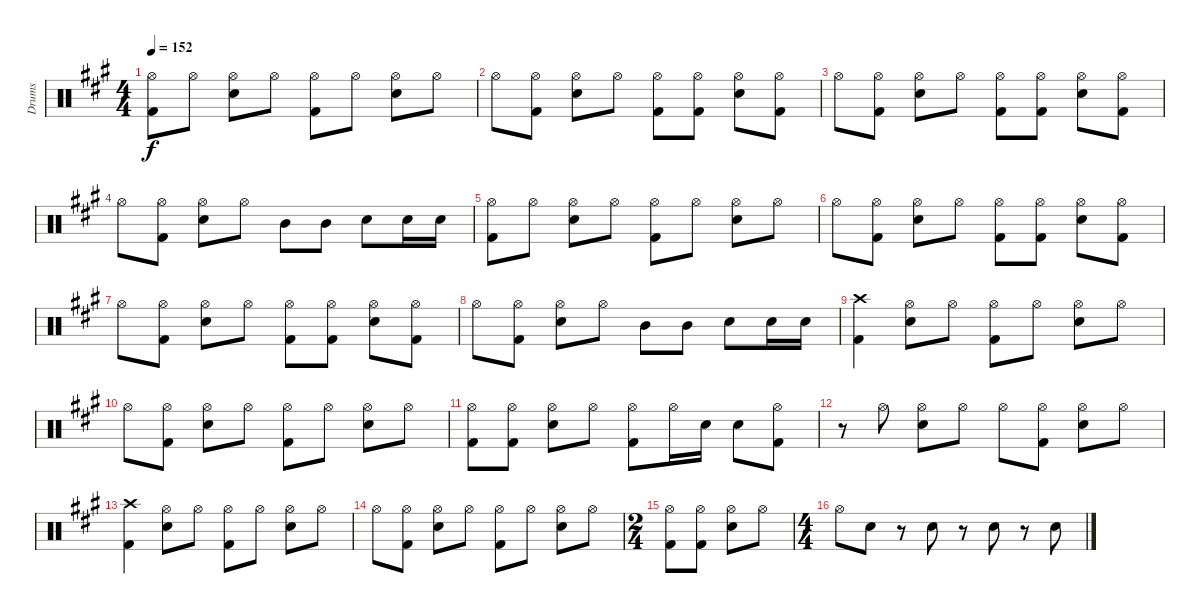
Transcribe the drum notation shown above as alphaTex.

\track ("Drums" "Drums") {instrument percussion}
\staff {score}
\articulation defaults
\ts (4 4)
\tempo 152
\clef neutral
\ks f#minor
("Kick (hit) 2" "Hi-Hat (open)").8{dy f} "Hi-Hat (open)".8 ("Snare (hit) 2" "Hi-Hat (open)").8 "Hi-Hat (open)".8 ("Kick (hit) 2" "Hi-Hat (open)").8 "Hi-Hat (open)".8 ("Snare (hit) 2" "Hi-Hat (open)").8 "Hi-Hat (open)".8 |
"Hi-Hat (open)".8 ("Kick (hit) 2" "Hi-Hat (open)").8 ("Snare (hit) 2" "Hi-Hat (open)").8 "Hi-Hat (open)".8 ("Kick (hit) 2" "Hi-Hat (open)").8 ("Kick (hit) 2" "Hi-Hat (open)").8 ("Snare (hit) 2" "Hi-Hat (open)").8 ("Kick (hit) 2" "Hi-Hat (open)").8 |
"Hi-Hat (open)".8 ("Kick (hit) 2" "Hi-Hat (open)").8 ("Snare (hit) 2" "Hi-Hat (open)").8 "Hi-Hat (open)".8 ("Kick (hit) 2" "Hi-Hat (open)").8 ("Kick (hit) 2" "Hi-Hat (open)").8 ("Snare (hit) 2" "Hi-Hat (open)").8 ("Kick (hit) 2" "Hi-Hat (open)").8 |
"Hi-Hat (open)".8 ("Kick (hit) 2" "Hi-Hat (open)").8 ("Snare (hit) 2" "Hi-Hat (open)").8 "Hi-Hat (open)".8 "Mid Tom (hit)".8 "Mid Tom (hit)".8 "Snare (hit) 2".8 "Snare (hit) 2".16 "Snare (hit) 2".16 |
("Kick (hit) 2" "Hi-Hat (open)").8 "Hi-Hat (open)".8 ("Snare (hit) 2" "Hi-Hat (open)").8 "Hi-Hat (open)".8 ("Kick (hit) 2" "Hi-Hat (open)").8 "Hi-Hat (open)".8 ("Snare (hit) 2" "Hi-Hat (open)").8 "Hi-Hat (open)".8 |
"Hi-Hat (open)".8 ("Kick (hit) 2" "Hi-Hat (open)").8 ("Snare (hit) 2" "Hi-Hat (open)").8 "Hi-Hat (open)".8 ("Kick (hit) 2" "Hi-Hat (open)").8 ("Kick (hit) 2" "Hi-Hat (open)").8 ("Snare (hit) 2" "Hi-Hat (open)").8 ("Kick (hit) 2" "Hi-Hat (open)").8 |
"Hi-Hat (open)".8 ("Kick (hit) 2" "Hi-Hat (open)").8 ("Snare (hit) 2" "Hi-Hat (open)").8 "Hi-Hat (open)".8 ("Kick (hit) 2" "Hi-Hat (open)").8 ("Kick (hit) 2" "Hi-Hat (open)").8 ("Snare (hit) 2" "Hi-Hat (open)").8 ("Kick (hit) 2" "Hi-Hat (open)").8 |
"Hi-Hat (open)".8 ("Kick (hit) 2" "Hi-Hat (open)").8 ("Snare (hit) 2" "Hi-Hat (open)").8 "Hi-Hat (open)".8 "Mid Tom (hit)".8 "Mid Tom (hit)".8 "Snare (hit) 2".8 "Snare (hit) 2".16 "Snare (hit) 2".16 |
("Kick (hit) 2" "Crash high (hit)").4 ("Snare (hit) 2" "Hi-Hat (open)").8 "Hi-Hat (open)".8 ("Kick (hit) 2" "Hi-Hat (open)").8 "Hi-Hat (open)".8 ("Snare (hit) 2" "Hi-Hat (open)").8 "Hi-Hat (open)".8 |
"Hi-Hat (open)".8 ("Kick (hit) 2" "Hi-Hat (open)").8 ("Snare (hit) 2" "Hi-Hat (open)").8 "Hi-Hat (open)".8 ("Kick (hit) 2" "Hi-Hat (open)").8 "Hi-Hat (open)".8 ("Snare (hit) 2" "Hi-Hat (open)").8 "Hi-Hat (open)".8 |
("Kick (hit) 2" "Hi-Hat (open)").8 ("Kick (hit) 2" "Hi-Hat (open)").8 ("Snare (hit) 2" "Hi-Hat (open)").8 "Hi-Hat (open)".8 ("Kick (hit) 2" "Hi-Hat (open)").8 "Hi-Hat (open)".16 "Snare (hit) 2".16 "Snare (hit) 2".8 ("Kick (hit) 2" "Hi-Hat (open)").8 |
r.8 "Hi-Hat (open)".8 ("Snare (hit) 2" "Hi-Hat (open)").8 "Hi-Hat (open)".8 "Hi-Hat (open)".8 ("Kick (hit) 2" "Hi-Hat (open)").8 ("Snare (hit) 2" "Hi-Hat (open)").8 "Hi-Hat (open)".8 |
("Kick (hit) 2" "Crash high (hit)").4 ("Snare (hit) 2" "Hi-Hat (open)").8 "Hi-Hat (open)".8 ("Kick (hit) 2" "Hi-Hat (open)").8 "Hi-Hat (open)".8 ("Snare (hit) 2" "Hi-Hat (open)").8 "Hi-Hat (open)".8 |
"Hi-Hat (open)".8 ("Kick (hit) 2" "Hi-Hat (open)").8 ("Snare (hit) 2" "Hi-Hat (open)").8 "Hi-Hat (open)".8 ("Kick (hit) 2" "Hi-Hat (open)").8 "Hi-Hat (open)".8 ("Snare (hit) 2" "Hi-Hat (open)").8 "Hi-Hat (open)".8 |
\ts (2 4)
("Kick (hit) 2" "Hi-Hat (open)").8 ("Kick (hit) 2" "Hi-Hat (open)").8 ("Snare (hit) 2" "Hi-Hat (open)").8 "Hi-Hat (open)".8 |
\ts (4 4)
"Hi-Hat (open)".8 "Snare (hit) 2".8 r.8 "Snare (hit) 2".8 r.8 "Snare (hit) 2".8 r.8 "Snare (hit) 2".8
